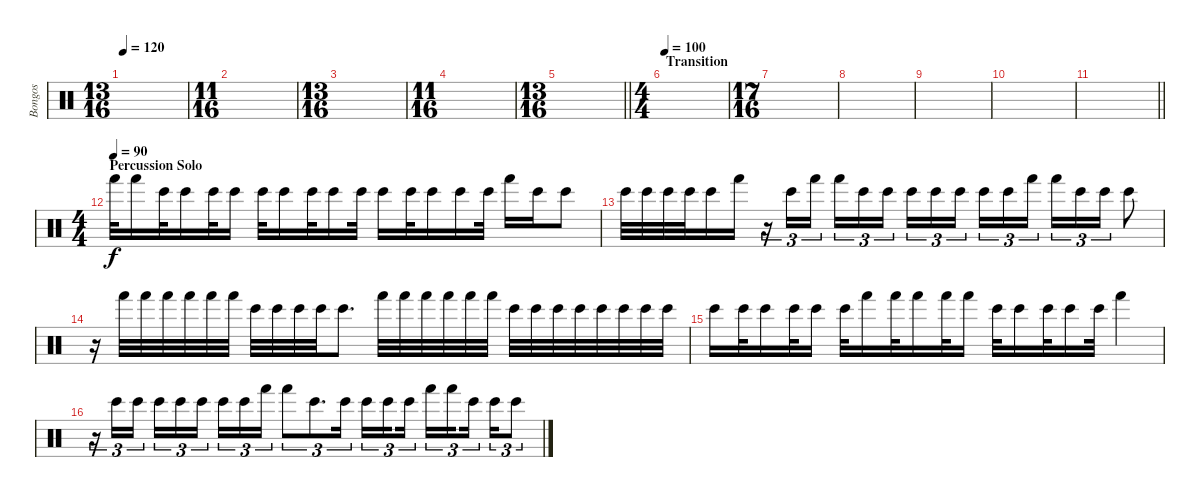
\track ("Bongos" "Bongos") {instrument percussion}
\staff {score}
\articulation defaults
\ts (13 16)
\tempo 120
\clef neutral
\ks c
|
\ts (11 16)
|
\ts (13 16)
|
\ts (11 16)
|
\ts (13 16)
\barLineRight lightlight
|
\ts (4 4)
\section ("" "Transition")
\tempo 100
|
\ts (17 16)
|
|
|
|
\barLineRight lightlight
|
\ts (4 4)
\section ("" "Percussion Solo")
\tempo (90)
"Hand (hit)".32 "Hand (hit)".16 "Bongo High (hit)".32 "Bongo High (hit)".16 "Bongo High (hit)".32 "Bongo High (hit)".16 "Bongo High (hit)".32 "Bongo High (hit)".16 "Bongo High (hit)".32 "Bongo High (hit)".16 "Bongo High (hit)".32 "Bongo High (hit)".16 "Bongo High (hit)".32 "Bongo High (hit)".16 "Bongo High (hit)".16 "Bongo High (hit)".32 "Hand (hit)".16 "Bongo High (hit)".16 "Bongo High (hit)".8 |
"Bongo High (hit)".32 "Bongo High (hit)".32 "Bongo High (hit)".32 "Bongo High (hit)".32 "Bongo High (hit)".16 "Hand (hit)".16 r.16{tu (3 2)} "Bongo High (hit)".16{tu (3 2)} "Hand (hit)".16{tu (3 2) beam splitsecondary} "Hand (hit)".16{tu (3 2)} "Bongo High (hit)".16{tu (3 2)} "Bongo High (hit)".16{tu (3 2)} "Bongo High (hit)".16{tu (3 2)} "Bongo High (hit)".16{tu (3 2)} "Bongo High (hit)".16{tu (3 2) beam splitsecondary} "Bongo High (hit)".16{tu (3 2)} "Bongo High (hit)".16{tu (3 2)} "Hand (hit)".16{tu (3 2)} "Hand (hit)".16{tu (3 2)} "Bongo High (hit)".16{tu (3 2)} "Bongo High (hit)".16{tu (3 2)} "Bongo High (hit)".8 |
r.16 "Hand (hit)".32 "Hand (hit)".32 "Hand (hit)".32 "Hand (hit)".32 "Hand (hit)".32 "Hand (hit)".32 "Bongo High (hit)".32 "Bongo High (hit)".32 "Bongo High (hit)".32 "Bongo High (hit)".32 "Bongo High (hit)".8{d} "Hand (hit)".32 "Hand (hit)".32 "Hand (hit)".32 "Hand (hit)".32 "Hand (hit)".32 "Hand (hit)".32 "Bongo High (hit)".32 "Bongo High (hit)".32 "Bongo High (hit)".32 "Bongo High (hit)".32 "Bongo High (hit)".32 "Bongo High (hit)".32 "Bongo High (hit)".32 "Bongo High (hit)".32 |
"Bongo High (hit)".16 "Bongo High (hit)".32 "Bongo High (hit)".16 "Bongo High (hit)".32 "Bongo High (hit)".16 "Bongo High (hit)".32 "Hand (hit)".16 "Hand (hit)".32 "Hand (hit)".16 "Hand (hit)".32 "Hand (hit)".16 "Bongo High (hit)".32 "Bongo High (hit)".16 "Bongo High (hit)".32 "Bongo High (hit)".16 "Bongo High (hit)".32 "Hand (hit)".4 |
r.16{tu (3 2)} "Bongo High (hit)".16{tu (3 2)} "Bongo High (hit)".16{tu (3 2) beam splitsecondary} "Bongo High (hit)".16{tu (3 2)} "Bongo High (hit)".16{tu (3 2)} "Bongo High (hit)".16{tu (3 2)} "Bongo High (hit)".16{tu (3 2)} "Bongo High (hit)".16{tu (3 2)} "Hand (hit)".16{tu (3 2)} "Hand (hit)".8{tu (3 2)} "Bongo High (hit)".8{d tu (3 2)} "Bongo High (hit)".16{tu (3 2)} "Bongo High (hit)".16{tu (3 2)} "Bongo High (hit)".16{tu (3 2) beam splitsecondary} "Bongo High (hit)".16{tu (3 2)} "Hand (hit)".16{tu (3 2)} "Hand (hit)".16{tu (3 2) beam splitsecondary} "Bongo High (hit)".16{tu (3 2)} "Bongo High (hit)".16{tu (3 2)} "Bongo High (hit)".8{tu (3 2)}
